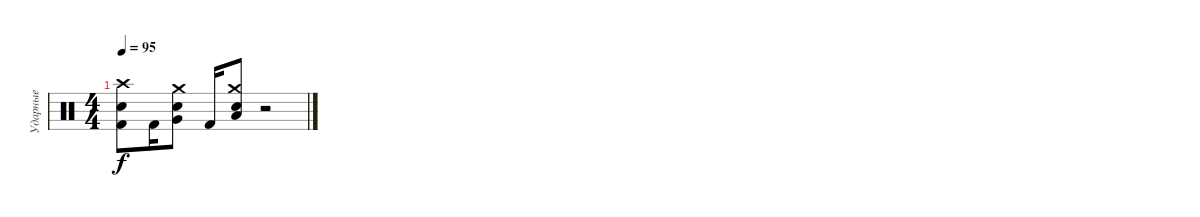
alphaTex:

\track ("Ударные" "Ударные") {instrument percussion}
\staff {score}
\articulation defaults
\ts (4 4)
\tempo 95
\clef neutral
\ks c
("Crash high (hit)" "Electric Snare (hit)" "Kick (hit) 2").8{dy f} "Kick (hit) 2".16 ("Crash medium (hit)" "Very Low Tom (hit)" "Electric Snare (hit)").8 "Kick (hit) 2".16 ("Crash medium (hit)" "Low Tom (hit)" "Electric Snare (hit)").8 r.2
